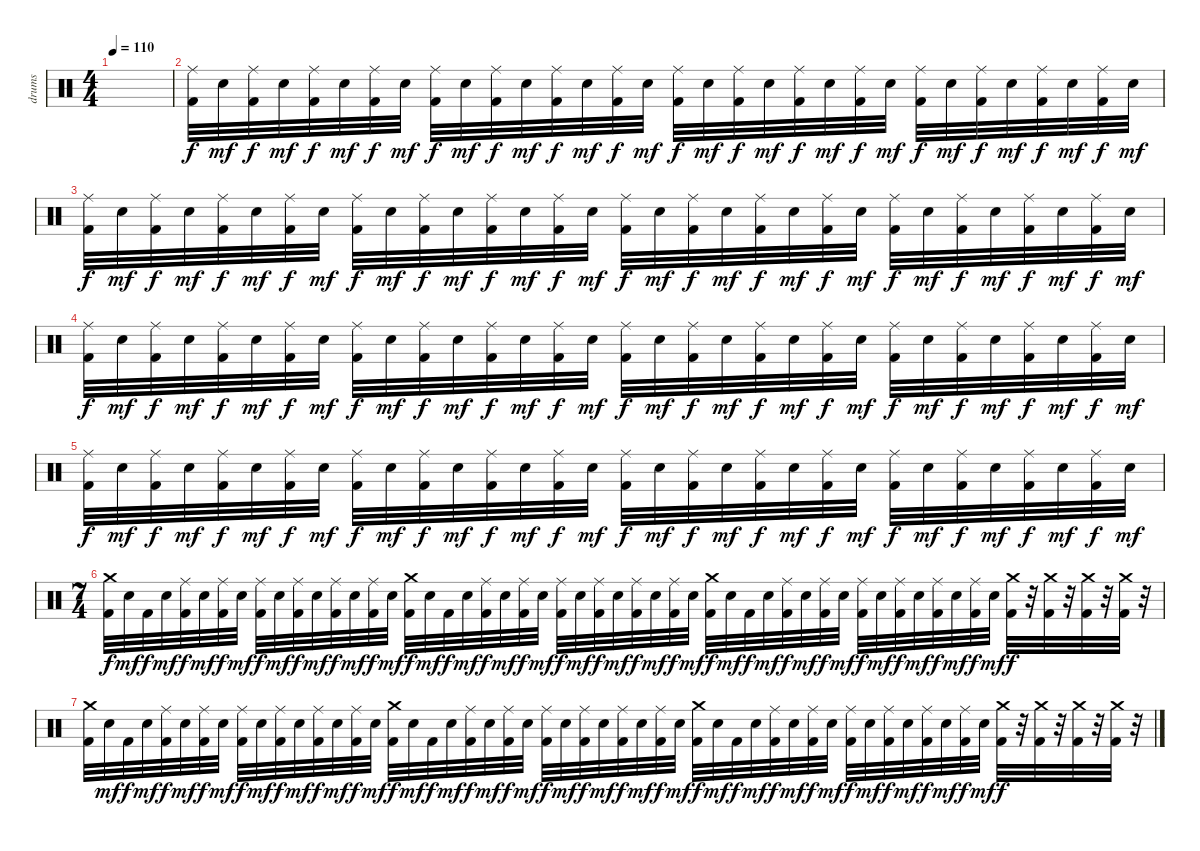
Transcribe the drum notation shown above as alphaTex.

\track ("drums" "drums") {instrument percussion}
\staff {score}
\articulation defaults
\ts (4 4)
\tempo 110
\clef neutral
\ks c
|
("Ride (middle)" "Kick (hit) 2").32 "Electric Snare (hit)".32{dy mf} ("Ride (middle)" "Kick (hit) 2").32{dy f} "Electric Snare (hit)".32{dy mf} ("Ride (middle)" "Kick (hit) 2").32{dy f} "Electric Snare (hit)".32{dy mf} ("Ride (middle)" "Kick (hit) 2").32{dy f} "Electric Snare (hit)".32{dy mf} ("Ride (middle)" "Kick (hit) 2").32{dy f} "Electric Snare (hit)".32{dy mf} ("Ride (middle)" "Kick (hit) 2").32{dy f} "Electric Snare (hit)".32{dy mf} ("Ride (middle)" "Kick (hit) 2").32{dy f} "Electric Snare (hit)".32{dy mf} ("Ride (middle)" "Kick (hit) 2").32{dy f} "Electric Snare (hit)".32{dy mf} ("Ride (middle)" "Kick (hit) 2").32{dy f} "Electric Snare (hit)".32{dy mf} ("Ride (middle)" "Kick (hit) 2").32{dy f} "Electric Snare (hit)".32{dy mf} ("Ride (middle)" "Kick (hit) 2").32{dy f} "Electric Snare (hit)".32{dy mf} ("Ride (middle)" "Kick (hit) 2").32{dy f} "Electric Snare (hit)".32{dy mf} ("Ride (middle)" "Kick (hit) 2").32{dy f} "Electric Snare (hit)".32{dy mf} ("Ride (middle)" "Kick (hit) 2").32{dy f} "Electric Snare (hit)".32{dy mf} ("Ride (middle)" "Kick (hit) 2").32{dy f} "Electric Snare (hit)".32{dy mf} ("Ride (middle)" "Kick (hit) 2").32{dy f} "Electric Snare (hit)".32{dy mf} |
("Ride (middle)" "Kick (hit) 2").32{dy f} "Electric Snare (hit)".32{dy mf} ("Ride (middle)" "Kick (hit) 2").32{dy f} "Electric Snare (hit)".32{dy mf} ("Ride (middle)" "Kick (hit) 2").32{dy f} "Electric Snare (hit)".32{dy mf} ("Ride (middle)" "Kick (hit) 2").32{dy f} "Electric Snare (hit)".32{dy mf} ("Ride (middle)" "Kick (hit) 2").32{dy f} "Electric Snare (hit)".32{dy mf} ("Ride (middle)" "Kick (hit) 2").32{dy f} "Electric Snare (hit)".32{dy mf} ("Ride (middle)" "Kick (hit) 2").32{dy f} "Electric Snare (hit)".32{dy mf} ("Ride (middle)" "Kick (hit) 2").32{dy f} "Electric Snare (hit)".32{dy mf} ("Ride (middle)" "Kick (hit) 2").32{dy f} "Electric Snare (hit)".32{dy mf} ("Ride (middle)" "Kick (hit) 2").32{dy f} "Electric Snare (hit)".32{dy mf} ("Ride (middle)" "Kick (hit) 2").32{dy f} "Electric Snare (hit)".32{dy mf} ("Ride (middle)" "Kick (hit) 2").32{dy f} "Electric Snare (hit)".32{dy mf} ("Ride (middle)" "Kick (hit) 2").32{dy f} "Electric Snare (hit)".32{dy mf} ("Ride (middle)" "Kick (hit) 2").32{dy f} "Electric Snare (hit)".32{dy mf} ("Ride (middle)" "Kick (hit) 2").32{dy f} "Electric Snare (hit)".32{dy mf} ("Ride (middle)" "Kick (hit) 2").32{dy f} "Electric Snare (hit)".32{dy mf} |
("Ride (middle)" "Kick (hit) 2").32{dy f} "Electric Snare (hit)".32{dy mf} ("Ride (middle)" "Kick (hit) 2").32{dy f} "Electric Snare (hit)".32{dy mf} ("Ride (middle)" "Kick (hit) 2").32{dy f} "Electric Snare (hit)".32{dy mf} ("Ride (middle)" "Kick (hit) 2").32{dy f} "Electric Snare (hit)".32{dy mf} ("Ride (middle)" "Kick (hit) 2").32{dy f} "Electric Snare (hit)".32{dy mf} ("Ride (middle)" "Kick (hit) 2").32{dy f} "Electric Snare (hit)".32{dy mf} ("Ride (middle)" "Kick (hit) 2").32{dy f} "Electric Snare (hit)".32{dy mf} ("Ride (middle)" "Kick (hit) 2").32{dy f} "Electric Snare (hit)".32{dy mf} ("Ride (middle)" "Kick (hit) 2").32{dy f} "Electric Snare (hit)".32{dy mf} ("Ride (middle)" "Kick (hit) 2").32{dy f} "Electric Snare (hit)".32{dy mf} ("Ride (middle)" "Kick (hit) 2").32{dy f} "Electric Snare (hit)".32{dy mf} ("Ride (middle)" "Kick (hit) 2").32{dy f} "Electric Snare (hit)".32{dy mf} ("Ride (middle)" "Kick (hit) 2").32{dy f} "Electric Snare (hit)".32{dy mf} ("Ride (middle)" "Kick (hit) 2").32{dy f} "Electric Snare (hit)".32{dy mf} ("Ride (middle)" "Kick (hit) 2").32{dy f} "Electric Snare (hit)".32{dy mf} ("Ride (middle)" "Kick (hit) 2").32{dy f} "Electric Snare (hit)".32{dy mf} |
("Ride (middle)" "Kick (hit) 2").32{dy f} "Electric Snare (hit)".32{dy mf} ("Ride (middle)" "Kick (hit) 2").32{dy f} "Electric Snare (hit)".32{dy mf} ("Ride (middle)" "Kick (hit) 2").32{dy f} "Electric Snare (hit)".32{dy mf} ("Ride (middle)" "Kick (hit) 2").32{dy f} "Electric Snare (hit)".32{dy mf} ("Ride (middle)" "Kick (hit) 2").32{dy f} "Electric Snare (hit)".32{dy mf} ("Ride (middle)" "Kick (hit) 2").32{dy f} "Electric Snare (hit)".32{dy mf} ("Ride (middle)" "Kick (hit) 2").32{dy f} "Electric Snare (hit)".32{dy mf} ("Ride (middle)" "Kick (hit) 2").32{dy f} "Electric Snare (hit)".32{dy mf} ("Ride (middle)" "Kick (hit) 2").32{dy f} "Electric Snare (hit)".32{dy mf} ("Ride (middle)" "Kick (hit) 2").32{dy f} "Electric Snare (hit)".32{dy mf} ("Ride (middle)" "Kick (hit) 2").32{dy f} "Electric Snare (hit)".32{dy mf} ("Ride (middle)" "Kick (hit) 2").32{dy f} "Electric Snare (hit)".32{dy mf} ("Ride (middle)" "Kick (hit) 2").32{dy f} "Electric Snare (hit)".32{dy mf} ("Ride (middle)" "Kick (hit) 2").32{dy f} "Electric Snare (hit)".32{dy mf} ("Ride (middle)" "Kick (hit) 2").32{dy f} "Electric Snare (hit)".32{dy mf} ("Ride (middle)" "Kick (hit) 2").32{dy f} "Electric Snare (hit)".32{dy mf} |
\ts (7 4)
("Crash medium (hit)" "Kick (hit) 2").32{dy f} "Electric Snare (hit)".32{dy mf} "Kick (hit) 2".32{dy f} "Electric Snare (hit)".32{dy mf} ("Ride (middle)" "Kick (hit) 2").32{dy f} "Electric Snare (hit)".32{dy mf} ("Ride (middle)" "Kick (hit) 2").32{dy f} "Electric Snare (hit)".32{dy mf} ("Ride (middle)" "Kick (hit) 2").32{dy f} "Electric Snare (hit)".32{dy mf} ("Ride (middle)" "Kick (hit) 2").32{dy f} "Electric Snare (hit)".32{dy mf} ("Ride (middle)" "Kick (hit) 2").32{dy f} "Electric Snare (hit)".32{dy mf} ("Ride (middle)" "Kick (hit) 2").32{dy f} "Electric Snare (hit)".32{dy mf} ("Crash medium (hit)" "Kick (hit) 2").32{dy f} "Electric Snare (hit)".32{dy mf} "Kick (hit) 2".32{dy f} "Electric Snare (hit)".32{dy mf} ("Ride (middle)" "Kick (hit) 2").32{dy f} "Electric Snare (hit)".32{dy mf} ("Ride (middle)" "Kick (hit) 2").32{dy f} "Electric Snare (hit)".32{dy mf} ("Ride (middle)" "Kick (hit) 2").32{dy f} "Electric Snare (hit)".32{dy mf} ("Ride (middle)" "Kick (hit) 2").32{dy f} "Electric Snare (hit)".32{dy mf} ("Ride (middle)" "Kick (hit) 2").32{dy f} "Electric Snare (hit)".32{dy mf} ("Ride (middle)" "Kick (hit) 2").32{dy f} "Electric Snare (hit)".32{dy mf} ("Crash medium (hit)" "Kick (hit) 2").32{dy f} "Electric Snare (hit)".32{dy mf} "Kick (hit) 2".32{dy f} "Electric Snare (hit)".32{dy mf} ("Ride (middle)" "Kick (hit) 2").32{dy f} "Electric Snare (hit)".32{dy mf} ("Ride (middle)" "Kick (hit) 2").32{dy f} "Electric Snare (hit)".32{dy mf} ("Ride (middle)" "Kick (hit) 2").32{dy f} "Electric Snare (hit)".32{dy mf} ("Ride (middle)" "Kick (hit) 2").32{dy f} "Electric Snare (hit)".32{dy mf} ("Ride (middle)" "Kick (hit) 2").32{dy f} "Electric Snare (hit)".32{dy mf} ("Ride (middle)" "Kick (hit) 2").32{dy f} "Electric Snare (hit)".32{dy mf} ("Crash medium (hit)" "Kick (hit) 2").32{dy f} r.32 ("Crash medium (hit)" "Kick (hit) 2").32 r.32 ("Crash medium (hit)" "Kick (hit) 2").32 r.32 ("Crash medium (hit)" "Kick (hit) 2").32 r.32 |
("Crash medium (hit)" "Kick (hit) 2").32 "Electric Snare (hit)".32{dy mf} "Kick (hit) 2".32{dy f} "Electric Snare (hit)".32{dy mf} ("Ride (middle)" "Kick (hit) 2").32{dy f} "Electric Snare (hit)".32{dy mf} ("Ride (middle)" "Kick (hit) 2").32{dy f} "Electric Snare (hit)".32{dy mf} ("Ride (middle)" "Kick (hit) 2").32{dy f} "Electric Snare (hit)".32{dy mf} ("Ride (middle)" "Kick (hit) 2").32{dy f} "Electric Snare (hit)".32{dy mf} ("Ride (middle)" "Kick (hit) 2").32{dy f} "Electric Snare (hit)".32{dy mf} ("Ride (middle)" "Kick (hit) 2").32{dy f} "Electric Snare (hit)".32{dy mf} ("Crash medium (hit)" "Kick (hit) 2").32{dy f} "Electric Snare (hit)".32{dy mf} "Kick (hit) 2".32{dy f} "Electric Snare (hit)".32{dy mf} ("Ride (middle)" "Kick (hit) 2").32{dy f} "Electric Snare (hit)".32{dy mf} ("Ride (middle)" "Kick (hit) 2").32{dy f} "Electric Snare (hit)".32{dy mf} ("Ride (middle)" "Kick (hit) 2").32{dy f} "Electric Snare (hit)".32{dy mf} ("Ride (middle)" "Kick (hit) 2").32{dy f} "Electric Snare (hit)".32{dy mf} ("Ride (middle)" "Kick (hit) 2").32{dy f} "Electric Snare (hit)".32{dy mf} ("Ride (middle)" "Kick (hit) 2").32{dy f} "Electric Snare (hit)".32{dy mf} ("Crash medium (hit)" "Kick (hit) 2").32{dy f} "Electric Snare (hit)".32{dy mf} "Kick (hit) 2".32{dy f} "Electric Snare (hit)".32{dy mf} ("Ride (middle)" "Kick (hit) 2").32{dy f} "Electric Snare (hit)".32{dy mf} ("Ride (middle)" "Kick (hit) 2").32{dy f} "Electric Snare (hit)".32{dy mf} ("Ride (middle)" "Kick (hit) 2").32{dy f} "Electric Snare (hit)".32{dy mf} ("Ride (middle)" "Kick (hit) 2").32{dy f} "Electric Snare (hit)".32{dy mf} ("Ride (middle)" "Kick (hit) 2").32{dy f} "Electric Snare (hit)".32{dy mf} ("Ride (middle)" "Kick (hit) 2").32{dy f} "Electric Snare (hit)".32{dy mf} ("Crash medium (hit)" "Kick (hit) 2").32{dy f} r.32 ("Crash medium (hit)" "Kick (hit) 2").32 r.32 ("Crash medium (hit)" "Kick (hit) 2").32 r.32 ("Crash medium (hit)" "Kick (hit) 2").32 r.32
